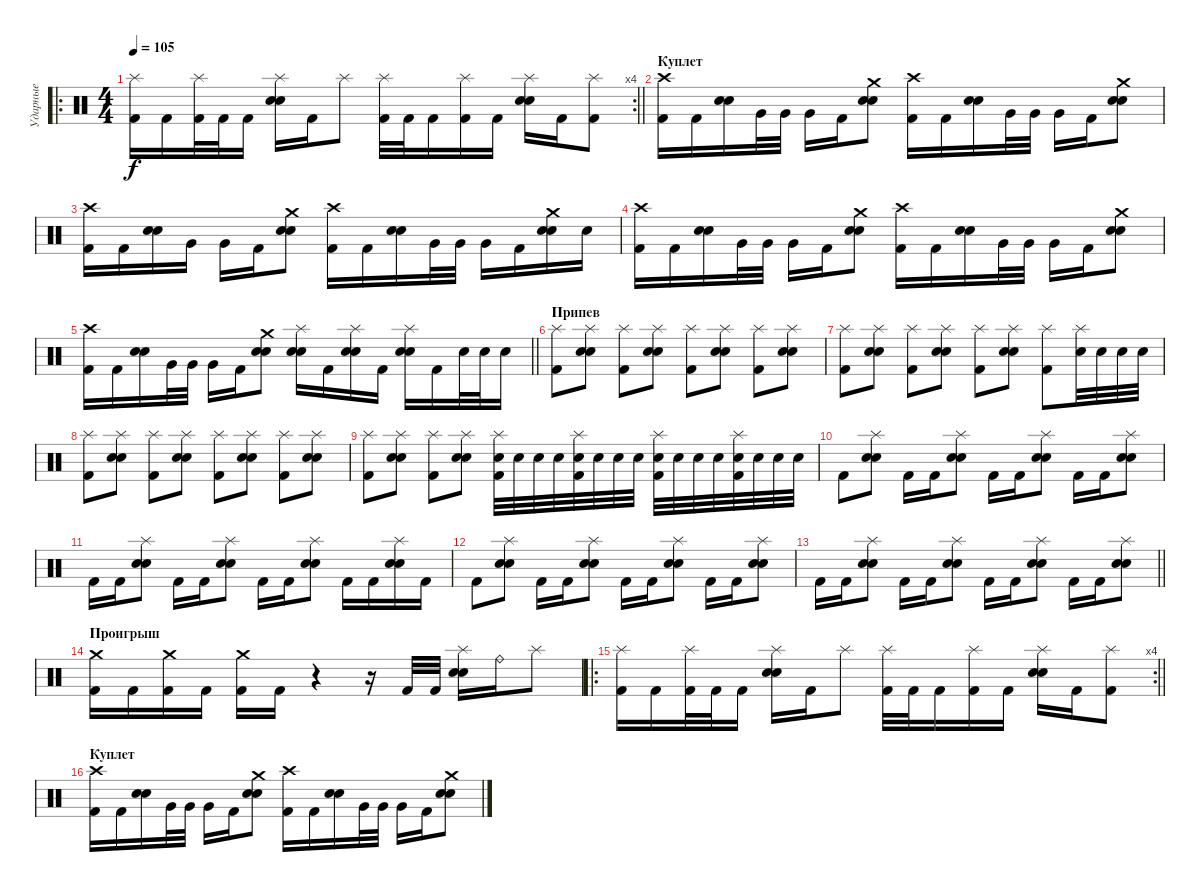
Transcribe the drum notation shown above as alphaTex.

\track ("Ударные" "Ударные") {instrument percussion}
\staff {score}
\articulation defaults
\ro
\rc 4
\ts (4 4)
\tempo 105
\clef neutral
\barLineRight lightlight
\ks c
("Splash (hit)" "Kick (hit) 2").16{dy f} "Kick (hit) 2".16 ("Splash (hit)" "Kick (hit) 2").32 "Kick (hit) 2".32 "Kick (hit) 2".16 ("Splash (hit)" "Electric Snare (hit)" "Snare (hit) 2").16 "Kick (hit) 2".16 "Splash (hit)".8 ("Splash (hit)" "Kick (hit) 2").32 "Kick (hit) 2".32 "Kick (hit) 2".16 ("Splash (hit)" "Kick (hit) 2").16 "Kick (hit) 2".16 ("Splash (hit)" "Electric Snare (hit)" "Snare (hit) 2").16 "Kick (hit) 2".16 ("Splash (hit)" "Kick (hit) 2").8 |
\section ("" "Куплет")
("Crash high (hit)" "Kick (hit) 2").16 "Kick (hit) 2".16 ("Electric Snare (hit)" "Snare (hit) 2").16 "Very Low Tom (hit)".32 "Very Low Tom (hit)".32 "Very Low Tom (hit)".16 "Kick (hit) 2".16 ("Crash medium (hit)" "Electric Snare (hit)" "Snare (hit) 2").8 ("Crash high (hit)" "Kick (hit) 2").16 "Kick (hit) 2".16 ("Electric Snare (hit)" "Snare (hit) 2").16 "Very Low Tom (hit)".32 "Very Low Tom (hit)".32 "Very Low Tom (hit)".16 "Kick (hit) 2".16 ("Crash medium (hit)" "Electric Snare (hit)" "Snare (hit) 2").8 |
("Crash high (hit)" "Kick (hit) 2").16 "Kick (hit) 2".16 ("Electric Snare (hit)" "Snare (hit) 2").16 "Very Low Tom (hit)".16 "Very Low Tom (hit)".16 "Kick (hit) 2".16 ("Crash medium (hit)" "Electric Snare (hit)" "Snare (hit) 2").8 ("Crash high (hit)" "Kick (hit) 2").16 "Kick (hit) 2".16 ("Electric Snare (hit)" "Snare (hit) 2").16 "Very Low Tom (hit)".32 "Very Low Tom (hit)".32 "Very Low Tom (hit)".16 "Kick (hit) 2".16 ("Crash medium (hit)" "Electric Snare (hit)" "Snare (hit) 2").16 "Electric Snare (hit)".16 |
("Crash high (hit)" "Kick (hit) 2").16 "Kick (hit) 2".16 ("Electric Snare (hit)" "Snare (hit) 2").16 "Very Low Tom (hit)".32 "Very Low Tom (hit)".32 "Very Low Tom (hit)".16 "Kick (hit) 2".16 ("Crash medium (hit)" "Electric Snare (hit)" "Snare (hit) 2").8 ("Crash high (hit)" "Kick (hit) 2").16 "Kick (hit) 2".16 ("Electric Snare (hit)" "Snare (hit) 2").16 "Very Low Tom (hit)".32 "Very Low Tom (hit)".32 "Very Low Tom (hit)".16 "Kick (hit) 2".16 ("Crash medium (hit)" "Electric Snare (hit)" "Snare (hit) 2").8 |
\barLineRight lightlight
("Crash high (hit)" "Kick (hit) 2").16 "Kick (hit) 2".16 ("Electric Snare (hit)" "Snare (hit) 2").16 "Very Low Tom (hit)".32 "Very Low Tom (hit)".32 "Very Low Tom (hit)".16 "Kick (hit) 2".16 ("Crash medium (hit)" "Electric Snare (hit)" "Snare (hit) 2").8 ("Splash (hit)" "Electric Snare (hit)" "Snare (hit) 2").16 "Kick (hit) 2".16 ("Splash (hit)" "Electric Snare (hit)" "Snare (hit) 2").16 "Kick (hit) 2".16 ("Splash (hit)" "Electric Snare (hit)" "Snare (hit) 2").16 "Kick (hit) 2".16 "Electric Snare (hit)".32 "Electric Snare (hit)".32 "Electric Snare (hit)".16 |
\section ("" "Припев")
("Splash (hit)" "Kick (hit) 2").8 ("Splash (hit)" "Electric Snare (hit)" "Snare (hit) 2").8 ("Splash (hit)" "Kick (hit) 2").8 ("Splash (hit)" "Electric Snare (hit)" "Snare (hit) 2").8 ("Splash (hit)" "Kick (hit) 2").8 ("Splash (hit)" "Electric Snare (hit)" "Snare (hit) 2").8 ("Splash (hit)" "Kick (hit) 2").8 ("Splash (hit)" "Electric Snare (hit)" "Snare (hit) 2").8 |
("Splash (hit)" "Kick (hit) 2").8 ("Splash (hit)" "Electric Snare (hit)" "Snare (hit) 2").8 ("Splash (hit)" "Kick (hit) 2").8 ("Splash (hit)" "Electric Snare (hit)" "Snare (hit) 2").8 ("Splash (hit)" "Kick (hit) 2").8 ("Splash (hit)" "Electric Snare (hit)" "Snare (hit) 2").8 ("Splash (hit)" "Kick (hit) 2").8 ("Splash (hit)" "Electric Snare (hit)").32 "Electric Snare (hit)".32 "Electric Snare (hit)".32 "Electric Snare (hit)".32 |
("Splash (hit)" "Kick (hit) 2").8 ("Splash (hit)" "Electric Snare (hit)" "Snare (hit) 2").8 ("Splash (hit)" "Kick (hit) 2").8 ("Splash (hit)" "Electric Snare (hit)" "Snare (hit) 2").8 ("Splash (hit)" "Kick (hit) 2").8 ("Splash (hit)" "Electric Snare (hit)" "Snare (hit) 2").8 ("Splash (hit)" "Kick (hit) 2").8 ("Splash (hit)" "Electric Snare (hit)" "Snare (hit) 2").8 |
("Splash (hit)" "Kick (hit) 2").8 ("Splash (hit)" "Electric Snare (hit)" "Snare (hit) 2").8 ("Splash (hit)" "Kick (hit) 2").8 ("Splash (hit)" "Electric Snare (hit)" "Snare (hit) 2").8 ("Splash (hit)" "Electric Snare (hit)" "Kick (hit) 2").32 "Electric Snare (hit)".32 "Electric Snare (hit)".32 "Electric Snare (hit)".32 ("Splash (hit)" "Electric Snare (hit)" "Kick (hit) 2").32 "Electric Snare (hit)".32 "Electric Snare (hit)".32 "Electric Snare (hit)".32 ("Splash (hit)" "Electric Snare (hit)" "Kick (hit) 2").32 "Electric Snare (hit)".32 "Electric Snare (hit)".32 "Electric Snare (hit)".32 ("Splash (hit)" "Electric Snare (hit)" "Kick (hit) 2").32 "Electric Snare (hit)".32 "Electric Snare (hit)".32 "Electric Snare (hit)".32 |
"Kick (hit) 2".8 ("Splash (hit)" "Electric Snare (hit)" "Snare (hit) 2").8 "Kick (hit) 2".16 "Kick (hit) 2".16 ("Splash (hit)" "Electric Snare (hit)" "Snare (hit) 2").8 "Kick (hit) 2".16 "Kick (hit) 2".16 ("Splash (hit)" "Electric Snare (hit)" "Snare (hit) 2").8 "Kick (hit) 2".16 "Kick (hit) 2".16 ("Splash (hit)" "Electric Snare (hit)" "Snare (hit) 2").8 |
"Kick (hit) 2".16 "Kick (hit) 2".16 ("Splash (hit)" "Electric Snare (hit)" "Snare (hit) 2").8 "Kick (hit) 2".16 "Kick (hit) 2".16 ("Splash (hit)" "Electric Snare (hit)" "Snare (hit) 2").8 "Kick (hit) 2".16 "Kick (hit) 2".16 ("Splash (hit)" "Electric Snare (hit)" "Snare (hit) 2").8 "Kick (hit) 2".16 "Kick (hit) 2".16 ("Splash (hit)" "Electric Snare (hit)" "Snare (hit) 2").16 "Kick (hit) 2".16 |
"Kick (hit) 2".8 ("Splash (hit)" "Electric Snare (hit)" "Snare (hit) 2").8 "Kick (hit) 2".16 "Kick (hit) 2".16 ("Splash (hit)" "Electric Snare (hit)" "Snare (hit) 2").8 "Kick (hit) 2".16 "Kick (hit) 2".16 ("Splash (hit)" "Electric Snare (hit)" "Snare (hit) 2").8 "Kick (hit) 2".16 "Kick (hit) 2".16 ("Splash (hit)" "Electric Snare (hit)" "Snare (hit) 2").8 |
\barLineRight lightlight "Kick (hit) 2".16 "Kick (hit) 2".16
("Splash (hit)" "Electric Snare (hit)" "Snare (hit) 2").8 "Kick (hit) 2".16 "Kick (hit) 2".16 ("Splash (hit)" "Electric Snare (hit)" "Snare (hit) 2").8 "Kick (hit) 2".16 "Kick (hit) 2".16 ("Splash (hit)" "Electric Snare (hit)" "Snare (hit) 2").8 "Kick (hit) 2".16 "Kick (hit) 2".16 ("Splash (hit)" "Electric Snare (hit)" "Snare (hit) 2").8 |
\section ("" "Проигрыш")
("Crash medium (hit)" "Kick (hit) 2").16 "Kick (hit) 2".16 ("Crash medium (hit)" "Kick (hit) 2").16 "Kick (hit) 2".16 ("Crash medium (hit)" "Kick (hit) 2").16 "Kick (hit) 2".16 r.4 r.16 "Kick (hit) 2".32 "Kick (hit) 2".32 ("Splash (hit)" "Electric Snare (hit)" "Snare (hit) 2").16 "Ride (bell)".16 "Splash (hit)".8 |
\ro
\rc 4
\barLineRight lightlight
("Splash (hit)" "Kick (hit) 2").16 "Kick (hit) 2".16 ("Splash (hit)" "Kick (hit) 2").32 "Kick (hit) 2".32 "Kick (hit) 2".16 ("Splash (hit)" "Electric Snare (hit)" "Snare (hit) 2").16 "Kick (hit) 2".16 "Splash (hit)".8 ("Splash (hit)" "Kick (hit) 2").32 "Kick (hit) 2".32 "Kick (hit) 2".16 ("Splash (hit)" "Kick (hit) 2").16 "Kick (hit) 2".16 ("Splash (hit)" "Electric Snare (hit)" "Snare (hit) 2").16 "Kick (hit) 2".16 ("Splash (hit)" "Kick (hit) 2").8 |
\section ("" "Куплет")
("Crash high (hit)" "Kick (hit) 2").16 "Kick (hit) 2".16 ("Electric Snare (hit)" "Snare (hit) 2").16 "Very Low Tom (hit)".32 "Very Low Tom (hit)".32 "Very Low Tom (hit)".16 "Kick (hit) 2".16 ("Crash medium (hit)" "Electric Snare (hit)" "Snare (hit) 2").8 ("Crash high (hit)" "Kick (hit) 2").16 "Kick (hit) 2".16 ("Electric Snare (hit)" "Snare (hit) 2").16 "Very Low Tom (hit)".32 "Very Low Tom (hit)".32 "Very Low Tom (hit)".16 "Kick (hit) 2".16 ("Crash medium (hit)" "Electric Snare (hit)" "Snare (hit) 2").8
